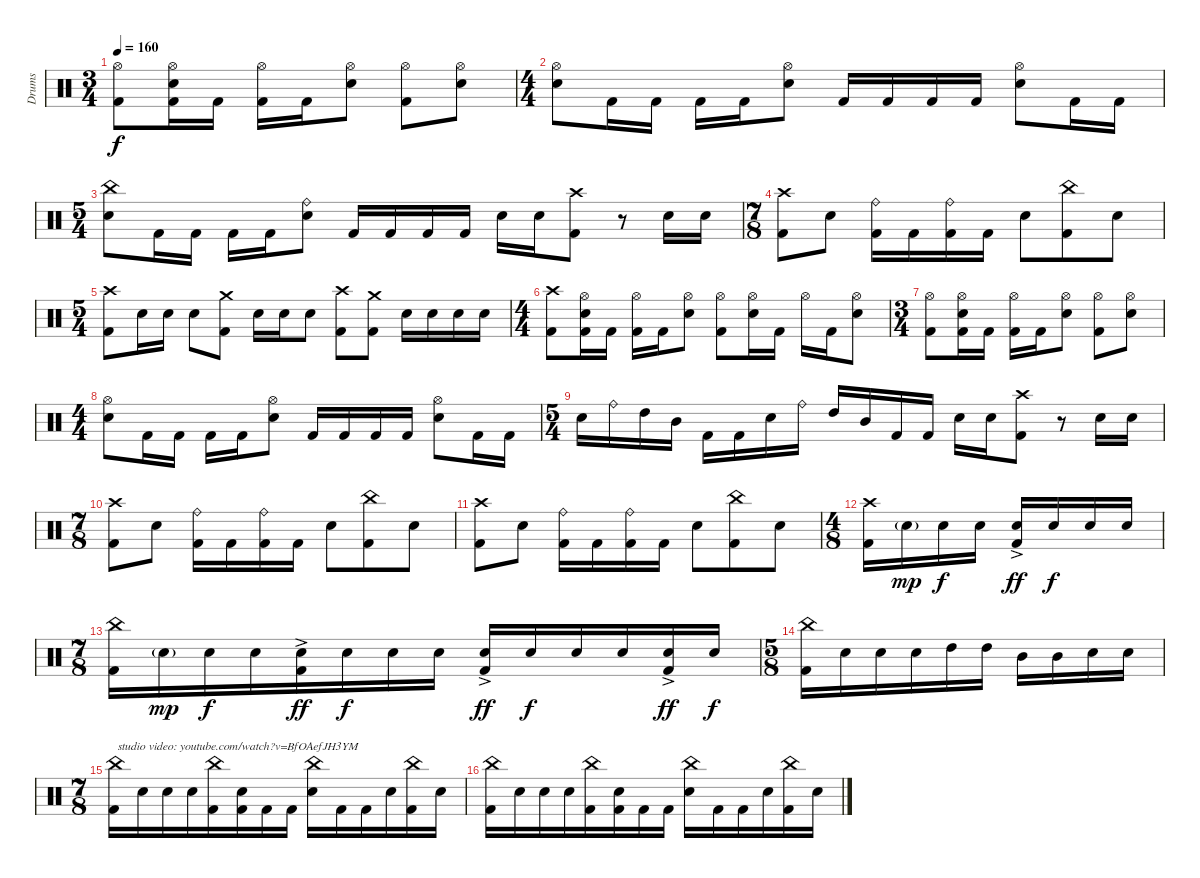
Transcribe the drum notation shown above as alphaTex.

\track ("Drums" "Drums") {instrument percussion}
\staff {score}
\articulation defaults
\ts (3 4)
\tempo 160
\clef neutral
\ks c
("Hi-Hat (open)" "Kick (hit) 2").8{dy f} ("Hi-Hat (open)" "Electric Snare (hit)" "Kick (hit) 2").16 "Kick (hit) 2".16 ("Hi-Hat (open)" "Kick (hit) 2").16 "Kick (hit) 2".16 ("Hi-Hat (open)" "Electric Snare (hit)").8 ("Hi-Hat (open)" "Kick (hit) 2").8 ("Hi-Hat (open)" "Electric Snare (hit)").8 |
\ts (4 4)
("Hi-Hat (open)" "Electric Snare (hit)").8 "Kick (hit) 2".16 "Kick (hit) 2".16 "Kick (hit) 2".16 "Kick (hit) 2".16 ("Hi-Hat (open)" "Electric Snare (hit)").8 "Kick (hit) 2".16 "Kick (hit) 2".16 "Kick (hit) 2".16 "Kick (hit) 2".16 ("Hi-Hat (open)" "Electric Snare (hit)").8 "Kick (hit) 2".16 "Kick (hit) 2".16 |
\ts (5 4)
("China (hit)" "Electric Snare (hit)").8 "Kick (hit) 2".16 "Kick (hit) 2".16 "Kick (hit) 2".16 "Kick (hit) 2".16 ("Ride (bell)" "Electric Snare (hit)").8 "Kick (hit) 2".16 "Kick (hit) 2".16 "Kick (hit) 2".16 "Kick (hit) 2".16 "Electric Snare (hit)".16 "Electric Snare (hit)".16 ("Crash high (hit)" "Kick (hit) 2").8 r.8 "Electric Snare (hit)".16 "Electric Snare (hit)".16 |
\ts (7 8)
("Crash high (hit)" "Kick (hit) 2").8{beam merge} "Electric Snare (hit)".8{beam split} ("Ride (bell)" "Kick (hit) 2").16 "Kick (hit) 2".16{beam merge} ("Ride (bell)" "Kick (hit) 2").16 "Kick (hit) 2".16{beam split} "Electric Snare (hit)".8{beam merge} ("China (hit)" "Kick (hit) 2").8 "Electric Snare (hit)".8 |
\ts (5 4)
("Crash high (hit)" "Kick (hit) 2").8 "Electric Snare (hit)".16 "Electric Snare (hit)".16 "Electric Snare (hit)".8 ("Crash medium (hit)" "Kick (hit) 2").8 "Electric Snare (hit)".16 "Electric Snare (hit)".16 "Electric Snare (hit)".8 ("Crash high (hit)" "Kick (hit) 2").8 ("Crash medium (hit)" "Kick (hit) 2").8 "Electric Snare (hit)".16 "Electric Snare (hit)".16 "Electric Snare (hit)".16 "Electric Snare (hit)".16 |
\ts (4 4)
("Crash high (hit)" "Kick (hit) 2").8 ("Hi-Hat (open)" "Electric Snare (hit)" "Kick (hit) 2").16 "Kick (hit) 2".16 ("Hi-Hat (open)" "Kick (hit) 2").16 "Kick (hit) 2".16 ("Hi-Hat (open)" "Electric Snare (hit)").8 ("Hi-Hat (open)" "Kick (hit) 2").8 ("Hi-Hat (open)" "Electric Snare (hit)").16 "Kick (hit) 2".16 "Hi-Hat (open)".16 "Kick (hit) 2".16 ("Hi-Hat (open)" "Electric Snare (hit)").8 |
\ts (3 4)
("Hi-Hat (open)" "Kick (hit) 2").8 ("Hi-Hat (open)" "Electric Snare (hit)" "Kick (hit) 2").16 "Kick (hit) 2".16 ("Hi-Hat (open)" "Kick (hit) 2").16 "Kick (hit) 2".16 ("Hi-Hat (open)" "Electric Snare (hit)").8 ("Hi-Hat (open)" "Kick (hit) 2").8 ("Hi-Hat (open)" "Electric Snare (hit)").8 |
\ts (4 4)
("Hi-Hat (open)" "Electric Snare (hit)").8 "Kick (hit) 2".16 "Kick (hit) 2".16 "Kick (hit) 2".16 "Kick (hit) 2".16 ("Hi-Hat (open)" "Electric Snare (hit)").8 "Kick (hit) 2".16 "Kick (hit) 2".16 "Kick (hit) 2".16 "Kick (hit) 2".16 ("Hi-Hat (open)" "Electric Snare (hit)").8 "Kick (hit) 2".16 "Kick (hit) 2".16 |
\ts (5 4)
"Electric Snare (hit)".16 "Ride (bell)".16 "High Tom (hit)".16 "Mid Tom (hit)".16 "Kick (hit) 2".16 "Kick (hit) 2".16 "Electric Snare (hit)".16 "Ride (bell)".16 "High Tom (hit)".16 "Mid Tom (hit)".16 "Kick (hit) 2".16 "Kick (hit) 2".16 "Electric Snare (hit)".16 "Electric Snare (hit)".16 ("Crash high (hit)" "Kick (hit) 2").8 r.8 "Electric Snare (hit)".16 "Electric Snare (hit)".16 |
\ts (7 8)
("Crash high (hit)" "Kick (hit) 2").8{beam merge} "Electric Snare (hit)".8{beam split} ("Ride (bell)" "Kick (hit) 2").16 "Kick (hit) 2".16{beam merge} ("Ride (bell)" "Kick (hit) 2").16 "Kick (hit) 2".16{beam split} "Electric Snare (hit)".8{beam merge} ("China (hit)" "Kick (hit) 2").8{beam merge} "Electric Snare (hit)".8 |
("Crash high (hit)" "Kick (hit) 2").8{beam merge} "Electric Snare (hit)".8{beam split} ("Ride (bell)" "Kick (hit) 2").16 "Kick (hit) 2".16{beam merge} ("Ride (bell)" "Kick (hit) 2").16 "Kick (hit) 2".16{beam split} "Electric Snare (hit)".8{beam merge} ("China (hit)" "Kick (hit) 2").8 "Electric Snare (hit)".8 |
\ts (4 8)
("Crash high (hit)" "Kick (hit) 2").16 "Electric Snare (hit)"{g}.16{dy mp} "Electric Snare (hit)".16{dy f} "Electric Snare (hit)".16 ("Electric Snare (hit)"{ac} "Kick (hit) 2").16{dy ff} "Electric Snare (hit)".16{dy f} "Electric Snare (hit)".16 "Electric Snare (hit)".16 |
\ts (7 8)
("China (hit)" "Kick (hit) 2").16 "Electric Snare (hit)"{g}.16{dy mp} "Electric Snare (hit)".16{dy f} "Electric Snare (hit)".16 ("Electric Snare (hit)"{ac} "Kick (hit) 2").16{dy ff} "Electric Snare (hit)".16{dy f} "Electric Snare (hit)".16 "Electric Snare (hit)".16 ("Electric Snare (hit)"{ac} "Kick (hit) 2").16{dy ff} "Electric Snare (hit)".16{dy f} "Electric Snare (hit)".16 "Electric Snare (hit)".16 ("Electric Snare (hit)"{ac} "Kick (hit) 2").16{dy ff} "Electric Snare (hit)".16{dy f} |
\ts (5 8)
("China (hit)" "Kick (hit) 2").16 "Electric Snare (hit)".16 "Electric Snare (hit)".16 "Electric Snare (hit)".16 "High Tom (hit)".16 "High Tom (hit)".16 "Mid Tom (hit)".16 "Mid Tom (hit)".16 "Electric Snare (hit)".16 "Electric Snare (hit)".16 |
\ts (7 8)
("China (hit)" "Kick (hit) 2").16{txt "studio video: youtube.com/watch?v=BfOAefJH3YM"} "Electric Snare (hit)".16 "Electric Snare (hit)".16 "Electric Snare (hit)".16 ("China (hit)" "Kick (hit) 2").16 ("Electric Snare (hit)" "Kick (hit) 2").16 "Kick (hit) 2".16 "Kick (hit) 2".16 ("China (hit)" "Electric Snare (hit)").16 "Kick (hit) 2".16 "Kick (hit) 2".16 "Electric Snare (hit)".16 ("China (hit)" "Kick (hit) 2").16 "Electric Snare (hit)".16 |
("China (hit)" "Kick (hit) 2").16 "Electric Snare (hit)".16 "Electric Snare (hit)".16 "Electric Snare (hit)".16 ("China (hit)" "Kick (hit) 2").16 ("Electric Snare (hit)" "Kick (hit) 2").16 "Kick (hit) 2".16 "Kick (hit) 2".16 ("China (hit)" "Electric Snare (hit)").16 "Kick (hit) 2".16 "Kick (hit) 2".16 "Electric Snare (hit)".16 ("China (hit)" "Kick (hit) 2").16 "Electric Snare (hit)".16
